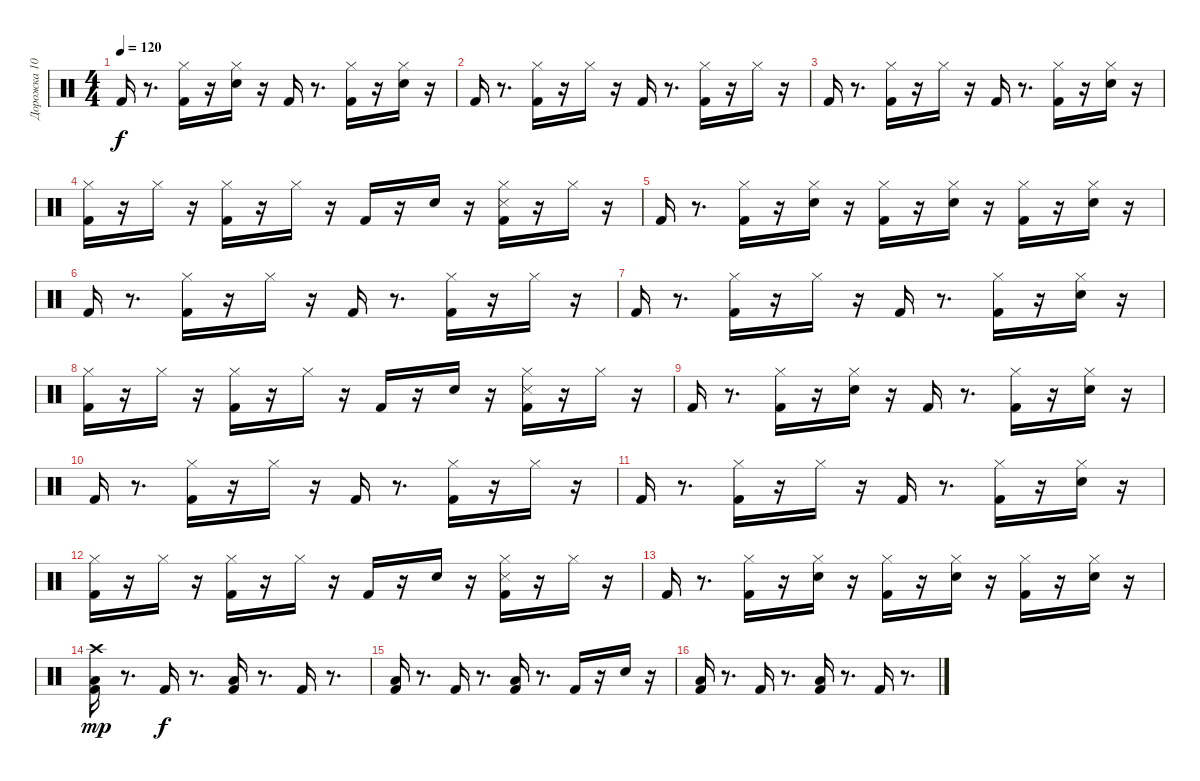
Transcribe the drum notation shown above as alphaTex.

\track ("Дорожка 10" "Дорожка 10") {instrument percussion}
\staff {score}
\articulation defaults
\ts (4 4)
\tempo 120
\clef neutral
\ks c "Kick (hit) 2".16{dy f}
r.8{d} ("Kick (hit) 2" "Hi-Hat (closed)").16 r.16 ("Hand Clap (hit)" "Hi-Hat (closed)").16 r.16 "Kick (hit) 2".16 r.8{d} ("Kick (hit) 2" "Hi-Hat (closed)").16 r.16 ("Snare (hit) 2" "Hi-Hat (closed)").16 r.16 |
"Kick (hit) 2".16 r.8{d} ("Kick (hit) 2" "Hi-Hat (closed)").16 r.16 "Hi-Hat (closed)".16 r.16 "Kick (hit) 2".16 r.8{d} ("Kick (hit) 2" "Hi-Hat (closed)").16 r.16 "Hi-Hat (closed)".16 r.16 |
"Kick (hit) 2".16 r.8{d} ("Kick (hit) 2" "Hi-Hat (closed)").16 r.16 "Hi-Hat (closed)".16 r.16 "Kick (hit) 2".16 r.8{d} ("Kick (hit) 2" "Hi-Hat (closed)").16 r.16 ("Snare (hit) 2" "Hi-Hat (closed)").16 r.16 |
("Kick (hit) 2" "Hi-Hat (closed)").16 r.16 "Hi-Hat (closed)".16 r.16 ("Kick (hit) 2" "Hi-Hat (closed)").16 r.16 "Hi-Hat (closed)".16 r.16 "Kick (hit) 2".16 r.16 "Hand Clap (hit)".16 r.16 ("Kick (hit) 2" "Snare (side stick) 3" "Hi-Hat (closed)").16 r.16 "Hi-Hat (closed)".16 r.16 |
"Kick (hit) 2".16 r.8{d} ("Kick (hit) 2" "Hi-Hat (closed)").16 r.16 ("Hand Clap (hit)" "Hi-Hat (closed)").16 r.16 ("Kick (hit) 2" "Hi-Hat (closed)").16 r.16 ("Hand Clap (hit)" "Hi-Hat (closed)").16 r.16 ("Kick (hit) 2" "Hi-Hat (closed)").16 r.16 ("Snare (hit) 2" "Hi-Hat (closed)").16 r.16 |
"Kick (hit) 2".16 r.8{d} ("Kick (hit) 2" "Hi-Hat (closed)").16 r.16 "Hi-Hat (closed)".16 r.16 "Kick (hit) 2".16 r.8{d} ("Kick (hit) 2" "Hi-Hat (closed)").16 r.16 "Hi-Hat (closed)".16 r.16 |
"Kick (hit) 2".16 r.8{d} ("Kick (hit) 2" "Hi-Hat (closed)").16 r.16 "Hi-Hat (closed)".16 r.16 "Kick (hit) 2".16 r.8{d} ("Kick (hit) 2" "Hi-Hat (closed)").16 r.16 ("Snare (hit) 2" "Hi-Hat (closed)").16 r.16 |
("Kick (hit) 2" "Hi-Hat (closed)").16 r.16 "Hi-Hat (closed)".16 r.16 ("Kick (hit) 2" "Hi-Hat (closed)").16 r.16 "Hi-Hat (closed)".16 r.16 "Kick (hit) 2".16 r.16 "Hand Clap (hit)".16 r.16 ("Kick (hit) 2" "Snare (side stick) 3" "Hi-Hat (closed)").16 r.16 "Hi-Hat (closed)".16 r.16 |
"Kick (hit) 2".16 r.8{d} ("Kick (hit) 2" "Hi-Hat (closed)").16 r.16 ("Hand Clap (hit)" "Hi-Hat (closed)").16 r.16 "Kick (hit) 2".16 r.8{d} ("Kick (hit) 2" "Hi-Hat (closed)").16 r.16 ("Snare (hit) 2" "Hi-Hat (closed)").16 r.16 |
"Kick (hit) 2".16 r.8{d} ("Kick (hit) 2" "Hi-Hat (closed)").16 r.16 "Hi-Hat (closed)".16 r.16 "Kick (hit) 2".16 r.8{d} ("Kick (hit) 2" "Hi-Hat (closed)").16 r.16 "Hi-Hat (closed)".16 r.16 |
"Kick (hit) 2".16 r.8{d} ("Kick (hit) 2" "Hi-Hat (closed)").16 r.16 "Hi-Hat (closed)".16 r.16 "Kick (hit) 2".16 r.8{d} ("Kick (hit) 2" "Hi-Hat (closed)").16 r.16 ("Snare (hit) 2" "Hi-Hat (closed)").16 r.16 |
("Kick (hit) 2" "Hi-Hat (closed)").16 r.16 "Hi-Hat (closed)".16 r.16 ("Kick (hit) 2" "Hi-Hat (closed)").16 r.16 "Hi-Hat (closed)".16 r.16 "Kick (hit) 2".16 r.16 "Hand Clap (hit)".16 r.16 ("Kick (hit) 2" "Snare (side stick) 3" "Hi-Hat (closed)").16 r.16 "Hi-Hat (closed)".16 r.16 |
"Kick (hit) 2".16 r.8{d} ("Kick (hit) 2" "Hi-Hat (closed)").16 r.16 ("Hand Clap (hit)" "Hi-Hat (closed)").16 r.16 ("Kick (hit) 2" "Hi-Hat (closed)").16 r.16 ("Hand Clap (hit)" "Hi-Hat (closed)").16 r.16 ("Kick (hit) 2" "Hi-Hat (closed)").16 r.16 ("Snare (hit) 2" "Hi-Hat (closed)").16 r.16 |
("Kick (hit) 2" "Low Floor Tom (hit)" "Crash high (hit)").16{dy mp} r.8{d} "Kick (hit) 2".16{dy f} r.8{d} ("Kick (hit) 2" "Low Floor Tom (hit)").16 r.8{d} "Kick (hit) 2".16 r.8{d} |
("Kick (hit) 2" "Low Floor Tom (hit)").16 r.8{d} "Kick (hit) 2".16 r.8{d} ("Kick (hit) 2" "Low Floor Tom (hit)").16 r.8{d} "Kick (hit) 2".16 r.16 "Snare (hit) 2".16 r.16 |
("Kick (hit) 2" "Low Floor Tom (hit)").16 r.8{d} "Kick (hit) 2".16 r.8{d} ("Kick (hit) 2" "Low Floor Tom (hit)").16 r.8{d} "Kick (hit) 2".16 r.8{d}
